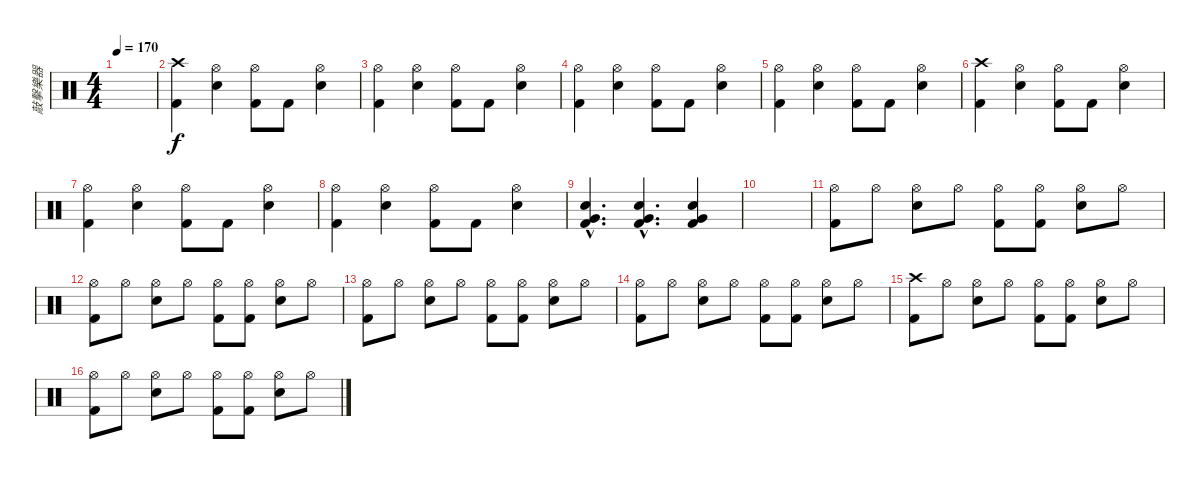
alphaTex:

\track ("敲擊樂器" "敲擊樂器") {instrument percussion}
\staff {score}
\articulation defaults
\ts (4 4)
\tempo 170
\clef neutral
\ks c
|
("Crash high (hit)" "Kick (hit) 2").4 ("Hi-Hat (open)" "Snare (hit) 2").4 ("Hi-Hat (open)" "Kick (hit) 2").8 "Kick (hit) 2".8 ("Hi-Hat (open)" "Snare (hit) 2").4 |
("Hi-Hat (open)" "Kick (hit) 2").4 ("Hi-Hat (open)" "Snare (hit) 2").4 ("Hi-Hat (open)" "Kick (hit) 2").8 "Kick (hit) 2".8 ("Hi-Hat (open)" "Snare (hit) 2").4 |
("Hi-Hat (open)" "Kick (hit) 2").4 ("Hi-Hat (open)" "Snare (hit) 2").4 ("Hi-Hat (open)" "Kick (hit) 2").8 "Kick (hit) 2".8 ("Hi-Hat (open)" "Snare (hit) 2").4 |
("Hi-Hat (open)" "Kick (hit) 2").4 ("Hi-Hat (open)" "Snare (hit) 2").4 ("Hi-Hat (open)" "Kick (hit) 2").8 "Kick (hit) 2".8 ("Hi-Hat (open)" "Snare (hit) 2").4 |
("Crash high (hit)" "Kick (hit) 2").4 ("Hi-Hat (open)" "Snare (hit) 2").4 ("Hi-Hat (open)" "Kick (hit) 2").8 "Kick (hit) 2".8 ("Hi-Hat (open)" "Snare (hit) 2").4 |
("Hi-Hat (open)" "Kick (hit) 2").4 ("Hi-Hat (open)" "Snare (hit) 2").4 ("Hi-Hat (open)" "Kick (hit) 2").8 "Kick (hit) 2".8 ("Hi-Hat (open)" "Snare (hit) 2").4 |
("Hi-Hat (open)" "Kick (hit) 2").4 ("Hi-Hat (open)" "Snare (hit) 2").4 ("Hi-Hat (open)" "Kick (hit) 2").8 "Kick (hit) 2".8 ("Hi-Hat (open)" "Snare (hit) 2").4 |
("Very Low Tom (hit)"{hac} "Snare (hit) 2"{hac} "Kick (hit) 2"{hac}).4{d} ("Very Low Tom (hit)"{hac} "Snare (hit) 2"{hac} "Kick (hit) 2"{hac}).4{d} ("Very Low Tom (hit)" "Snare (hit) 2" "Kick (hit) 2").4 |
|
("Hi-Hat (open)" "Kick (hit) 2").8 "Hi-Hat (open)".8 ("Hi-Hat (open)" "Snare (hit) 2").8 "Hi-Hat (open)".8 ("Hi-Hat (open)" "Kick (hit) 2").8 ("Hi-Hat (open)" "Kick (hit) 2").8 ("Hi-Hat (open)" "Snare (hit) 2").8 "Hi-Hat (open)".8 |
("Hi-Hat (open)" "Kick (hit) 2").8 "Hi-Hat (open)".8 ("Hi-Hat (open)" "Snare (hit) 2").8 "Hi-Hat (open)".8 ("Hi-Hat (open)" "Kick (hit) 2").8 ("Hi-Hat (open)" "Kick (hit) 2").8 ("Hi-Hat (open)" "Snare (hit) 2").8 "Hi-Hat (open)".8 |
("Hi-Hat (open)" "Kick (hit) 2").8 "Hi-Hat (open)".8 ("Hi-Hat (open)" "Snare (hit) 2").8 "Hi-Hat (open)".8 ("Hi-Hat (open)" "Kick (hit) 2").8 ("Hi-Hat (open)" "Kick (hit) 2").8 ("Hi-Hat (open)" "Snare (hit) 2").8 "Hi-Hat (open)".8 |
("Hi-Hat (open)" "Kick (hit) 2").8 "Hi-Hat (open)".8 ("Hi-Hat (open)" "Snare (hit) 2").8 "Hi-Hat (open)".8 ("Hi-Hat (open)" "Kick (hit) 2").8 ("Hi-Hat (open)" "Kick (hit) 2").8 ("Hi-Hat (open)" "Snare (hit) 2").8 "Hi-Hat (open)".8 |
("Crash high (hit)" "Kick (hit) 2").8 "Hi-Hat (open)".8 ("Hi-Hat (open)" "Snare (hit) 2").8 "Hi-Hat (open)".8 ("Hi-Hat (open)" "Kick (hit) 2").8 ("Hi-Hat (open)" "Kick (hit) 2").8 ("Hi-Hat (open)" "Snare (hit) 2").8 "Hi-Hat (open)".8 |
("Hi-Hat (open)" "Kick (hit) 2").8 "Hi-Hat (open)".8 ("Hi-Hat (open)" "Snare (hit) 2").8 "Hi-Hat (open)".8 ("Hi-Hat (open)" "Kick (hit) 2").8 ("Hi-Hat (open)" "Kick (hit) 2").8 ("Hi-Hat (open)" "Snare (hit) 2").8 "Hi-Hat (open)".8
